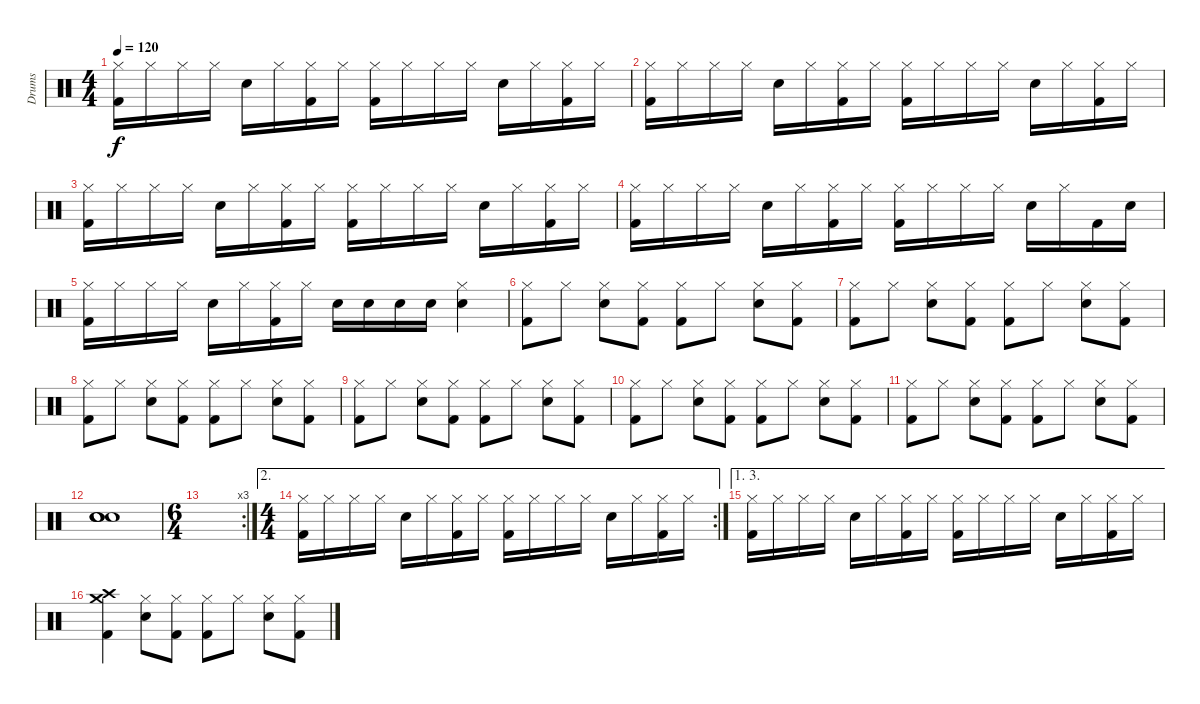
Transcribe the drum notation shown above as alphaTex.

\track ("Drums" "Drums") {instrument percussion}
\staff {score}
\articulation defaults
\ts (4 4)
\tempo 120
\clef neutral
\ks c
("Hi-Hat (closed)" "Kick (hit) 2").16{dy f} "Hi-Hat (closed)".16 "Hi-Hat (closed)".16 "Hi-Hat (closed)".16 "Snare (hit) 2".16 "Hi-Hat (closed)".16 ("Hi-Hat (closed)" "Kick (hit) 2").16 "Hi-Hat (closed)".16 ("Hi-Hat (closed)" "Kick (hit) 2").16 "Hi-Hat (closed)".16 "Hi-Hat (closed)".16 "Hi-Hat (closed)".16 "Snare (hit) 2".16 "Hi-Hat (closed)".16 ("Hi-Hat (closed)" "Kick (hit) 2").16 "Hi-Hat (closed)".16 |
("Hi-Hat (closed)" "Kick (hit) 2").16 "Hi-Hat (closed)".16 "Hi-Hat (closed)".16 "Hi-Hat (closed)".16 "Snare (hit) 2".16 "Hi-Hat (closed)".16 ("Hi-Hat (closed)" "Kick (hit) 2").16 "Hi-Hat (closed)".16 ("Hi-Hat (closed)" "Kick (hit) 2").16 "Hi-Hat (closed)".16 "Hi-Hat (closed)".16 "Hi-Hat (closed)".16 "Snare (hit) 2".16 "Hi-Hat (closed)".16 ("Hi-Hat (closed)" "Kick (hit) 2").16 "Hi-Hat (closed)".16 |
("Hi-Hat (closed)" "Kick (hit) 2").16 "Hi-Hat (closed)".16 "Hi-Hat (closed)".16 "Hi-Hat (closed)".16 "Snare (hit) 2".16 "Hi-Hat (closed)".16 ("Hi-Hat (closed)" "Kick (hit) 2").16 "Hi-Hat (closed)".16 ("Hi-Hat (closed)" "Kick (hit) 2").16 "Hi-Hat (closed)".16 "Hi-Hat (closed)".16 "Hi-Hat (closed)".16 "Snare (hit) 2".16 "Hi-Hat (closed)".16 ("Hi-Hat (closed)" "Kick (hit) 2").16 "Hi-Hat (closed)".16 |
("Hi-Hat (closed)" "Kick (hit) 2").16 "Hi-Hat (closed)".16 "Hi-Hat (closed)".16 "Hi-Hat (closed)".16 "Snare (hit) 2".16 "Hi-Hat (closed)".16 ("Hi-Hat (closed)" "Kick (hit) 2").16 "Hi-Hat (closed)".16 ("Hi-Hat (closed)" "Kick (hit) 2").16 "Hi-Hat (closed)".16 "Hi-Hat (closed)".16 "Hi-Hat (closed)".16 "Snare (hit) 2".16 "Hi-Hat (closed)".16 "Kick (hit) 2".16 "Snare (hit) 2".16 |
("Hi-Hat (closed)" "Kick (hit) 2").16 "Hi-Hat (closed)".16 "Hi-Hat (closed)".16 "Hi-Hat (closed)".16 "Snare (hit) 2".16 "Hi-Hat (closed)".16 ("Hi-Hat (closed)" "Kick (hit) 2").16 "Hi-Hat (closed)".16 "Snare (hit) 2".16 "Snare (hit) 2".16 "Snare (hit) 2".16 "Snare (hit) 2".16 ("Hi-Hat (closed)" "Snare (hit) 2").4 |
("Hi-Hat (closed)" "Kick (hit) 2").8 "Hi-Hat (closed)".8 ("Hi-Hat (closed)" "Snare (hit) 2").8 ("Hi-Hat (closed)" "Kick (hit) 2").8 ("Hi-Hat (closed)" "Kick (hit) 2").8 "Hi-Hat (closed)".8 ("Hi-Hat (closed)" "Snare (hit) 2").8 ("Hi-Hat (closed)" "Kick (hit) 2").8 |
("Hi-Hat (closed)" "Kick (hit) 2").8 "Hi-Hat (closed)".8 ("Hi-Hat (closed)" "Snare (hit) 2").8 ("Hi-Hat (closed)" "Kick (hit) 2").8 ("Hi-Hat (closed)" "Kick (hit) 2").8 "Hi-Hat (closed)".8 ("Hi-Hat (closed)" "Snare (hit) 2").8 ("Hi-Hat (closed)" "Kick (hit) 2").8 |
("Hi-Hat (closed)" "Kick (hit) 2").8 "Hi-Hat (closed)".8 ("Hi-Hat (closed)" "Snare (hit) 2").8 ("Hi-Hat (closed)" "Kick (hit) 2").8 ("Hi-Hat (closed)" "Kick (hit) 2").8 "Hi-Hat (closed)".8 ("Hi-Hat (closed)" "Snare (hit) 2").8 ("Hi-Hat (closed)" "Kick (hit) 2").8 |
("Hi-Hat (closed)" "Kick (hit) 2").8 "Hi-Hat (closed)".8 ("Hi-Hat (closed)" "Snare (hit) 2").8 ("Hi-Hat (closed)" "Kick (hit) 2").8 ("Hi-Hat (closed)" "Kick (hit) 2").8 "Hi-Hat (closed)".8 ("Hi-Hat (closed)" "Snare (hit) 2").8 ("Hi-Hat (closed)" "Kick (hit) 2").8 |
("Hi-Hat (closed)" "Kick (hit) 2").8 "Hi-Hat (closed)".8 ("Hi-Hat (closed)" "Snare (hit) 2").8 ("Hi-Hat (closed)" "Kick (hit) 2").8 ("Hi-Hat (closed)" "Kick (hit) 2").8 "Hi-Hat (closed)".8 ("Hi-Hat (closed)" "Snare (hit) 2").8 ("Hi-Hat (closed)" "Kick (hit) 2").8 |
("Hi-Hat (closed)" "Kick (hit) 2").8 "Hi-Hat (closed)".8 ("Hi-Hat (closed)" "Snare (hit) 2").8 ("Hi-Hat (closed)" "Kick (hit) 2").8 ("Hi-Hat (closed)" "Kick (hit) 2").8 "Hi-Hat (closed)".8 ("Hi-Hat (closed)" "Snare (hit) 2").8 ("Hi-Hat (closed)" "Kick (hit) 2").8 |
("Snare (hit)" "Snare (hit)" "Snare (hit)" "Snare (hit)").1 |
\rc 3
\ts (6 4)
|
\ae 2
\rc 2
\ts (4 4)
("Hi-Hat (closed)" "Kick (hit) 2").16 "Hi-Hat (closed)".16 "Hi-Hat (closed)".16 "Hi-Hat (closed)".16 "Snare (hit) 2".16 "Hi-Hat (closed)".16 ("Hi-Hat (closed)" "Kick (hit) 2").16 "Hi-Hat (closed)".16 ("Hi-Hat (closed)" "Kick (hit) 2").16 "Hi-Hat (closed)".16 "Hi-Hat (closed)".16 "Hi-Hat (closed)".16 "Snare (hit) 2".16 "Hi-Hat (closed)".16 ("Hi-Hat (closed)" "Kick (hit) 2").16 "Hi-Hat (closed)".16 |
\ae (1 3)
("Hi-Hat (closed)" "Kick (hit) 2").16 "Hi-Hat (closed)".16 "Hi-Hat (closed)".16 "Hi-Hat (closed)".16 "Snare (hit) 2".16 "Hi-Hat (closed)".16 ("Hi-Hat (closed)" "Kick (hit) 2").16 "Hi-Hat (closed)".16 ("Hi-Hat (closed)" "Kick (hit) 2").16 "Hi-Hat (closed)".16 "Hi-Hat (closed)".16 "Hi-Hat (closed)".16 "Snare (hit) 2".16 "Hi-Hat (closed)".16 ("Hi-Hat (closed)" "Kick (hit) 2").16 "Hi-Hat (closed)".16 |
("Crash medium (hit)" "Crash high (hit)" "Kick (hit) 2").4 ("Hi-Hat (closed)" "Snare (hit) 2").8 ("Hi-Hat (closed)" "Kick (hit) 2").8 ("Hi-Hat (closed)" "Kick (hit) 2").8 "Hi-Hat (closed)".8 ("Hi-Hat (closed)" "Snare (hit) 2").8 ("Hi-Hat (closed)" "Kick (hit) 2").8
